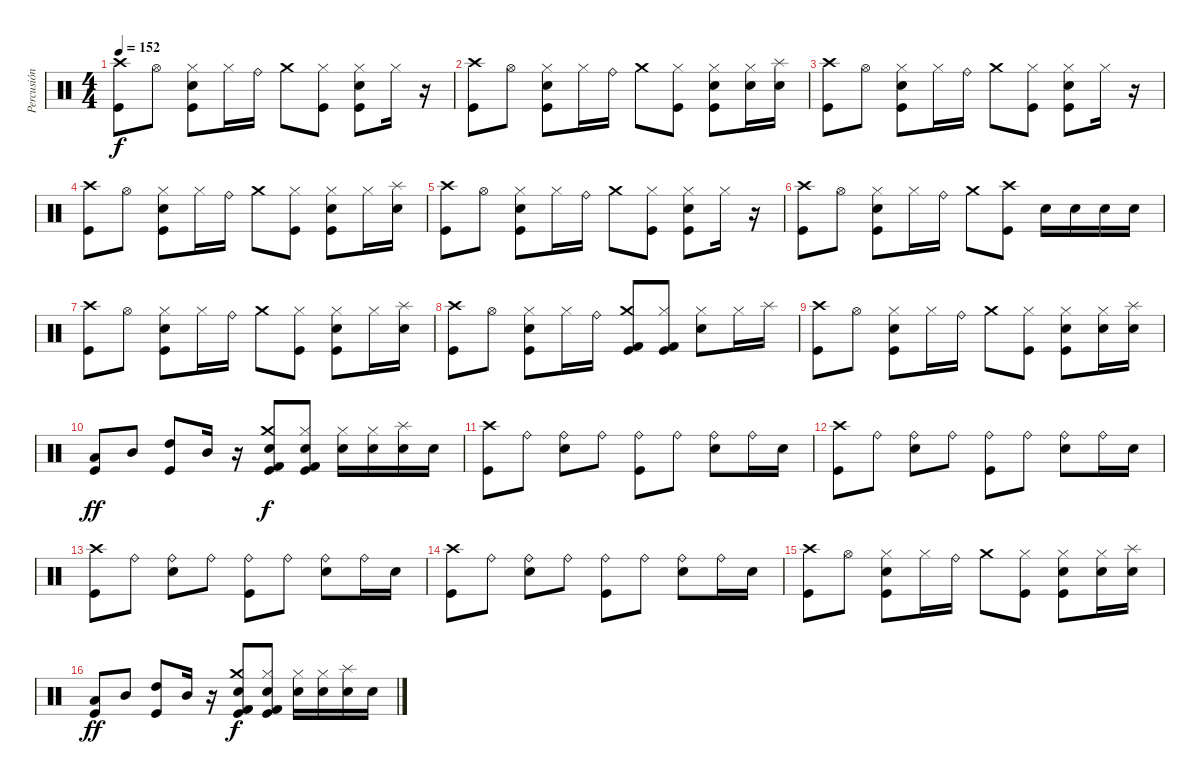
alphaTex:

\track ("Percusión" "Percusión") {instrument percussion}
\staff {score}
\articulation defaults
\ts (4 4)
\tempo 152
\clef neutral
\ks c
("Crash high (hit)" "Kick (hit)").8{dy f} "Hi-Hat (open)".8 ("Hi-Hat (closed)" "Electric Snare (hit)" "Kick (hit)").8 "Hi-Hat (closed)".16 "Ride (bell)".16 "Crash medium (hit)".8 ("Hi-Hat (closed)" "Kick (hit)").8 ("Hi-Hat (closed)" "Electric Snare (hit)" "Kick (hit)").8 "Hi-Hat (closed)".16 r.16 |
("Crash high (hit)" "Kick (hit)").8 "Hi-Hat (open)".8 ("Hi-Hat (closed)" "Electric Snare (hit)" "Kick (hit)").8 "Hi-Hat (closed)".16 "Ride (bell)".16 "Crash medium (hit)".8 ("Hi-Hat (closed)" "Kick (hit)").8 ("Hi-Hat (closed)" "Electric Snare (hit)" "Kick (hit)").8 ("Hi-Hat (closed)" "Electric Snare (hit)").16 ("Splash (hit)" "Electric Snare (hit)").16 |
("Crash high (hit)" "Kick (hit)").8 "Hi-Hat (open)".8 ("Hi-Hat (closed)" "Electric Snare (hit)" "Kick (hit)").8 "Hi-Hat (closed)".16 "Ride (bell)".16 "Crash medium (hit)".8 ("Hi-Hat (closed)" "Kick (hit)").8 ("Hi-Hat (closed)" "Electric Snare (hit)" "Kick (hit)").8 "Hi-Hat (closed)".16 r.16 |
("Crash high (hit)" "Kick (hit)").8 "Hi-Hat (open)".8 ("Hi-Hat (closed)" "Electric Snare (hit)" "Kick (hit)").8 "Hi-Hat (closed)".16 "Ride (bell)".16 "Crash medium (hit)".8 ("Hi-Hat (closed)" "Kick (hit)").8 ("Hi-Hat (closed)" "Electric Snare (hit)" "Kick (hit)").8 "Hi-Hat (closed)".16 ("Splash (hit)" "Electric Snare (hit)").16 |
("Crash high (hit)" "Kick (hit)").8 "Hi-Hat (open)".8 ("Hi-Hat (closed)" "Electric Snare (hit)" "Kick (hit)").8 "Hi-Hat (closed)".16 "Ride (bell)".16 "Crash medium (hit)".8 ("Hi-Hat (closed)" "Kick (hit)").8 ("Hi-Hat (closed)" "Electric Snare (hit)" "Kick (hit)").8 "Hi-Hat (closed)".16 r.16 |
("Crash high (hit)" "Kick (hit)").8 "Hi-Hat (open)".8 ("Hi-Hat (closed)" "Electric Snare (hit)" "Kick (hit)").8 "Hi-Hat (closed)".16 "Ride (bell)".16 "Crash medium (hit)".8 ("Crash high (hit)" "Kick (hit)").8 "Electric Snare (hit)".16 "Electric Snare (hit)".16 "Electric Snare (hit)".16 "Electric Snare (hit)".16 |
("Crash high (hit)" "Kick (hit)").8 "Hi-Hat (open)".8 ("Hi-Hat (closed)" "Electric Snare (hit)" "Kick (hit)").8 "Hi-Hat (closed)".16 "Ride (bell)".16 "Crash medium (hit)".8 ("Hi-Hat (closed)" "Kick (hit)").8 ("Hi-Hat (closed)" "Electric Snare (hit)" "Kick (hit)").8 "Hi-Hat (closed)".16 ("Splash (hit)" "Electric Snare (hit)").16 |
("Crash high (hit)" "Kick (hit)").8 "Hi-Hat (open)".8 ("Hi-Hat (closed)" "Electric Snare (hit)" "Kick (hit)").8 "Hi-Hat (closed)".16 "Ride (bell)".16 ("Crash medium (hit)" "Kick (hit) 2" "Kick (hit)").8 ("Hi-Hat (closed)" "Kick (hit) 2" "Kick (hit)").8 ("Hi-Hat (closed)" "Electric Snare (hit)").8 "Hi-Hat (closed)".16 "Splash (hit)".16 |
("Crash high (hit)" "Kick (hit)").8 "Hi-Hat (open)".8 ("Hi-Hat (closed)" "Electric Snare (hit)" "Kick (hit)").8 "Hi-Hat (closed)".16 "Ride (bell)".16 "Crash medium (hit)".8 ("Hi-Hat (closed)" "Kick (hit)").8 ("Hi-Hat (closed)" "Electric Snare (hit)" "Kick (hit)").8 ("Hi-Hat (closed)" "Electric Snare (hit)").16 ("Splash (hit)" "Electric Snare (hit)").16 |
("Low Tom (hit)" "Kick (hit)").8{dy ff} "Mid Tom (hit)".8 ("High Tom (hit)" "Kick (hit)").8 "Mid Tom (hit)".16 r.16 ("Crash medium (hit)" "Electric Snare (hit)" "Kick (hit) 2" "Kick (hit)").8{dy f} ("Hi-Hat (closed)" "Electric Snare (hit)" "Kick (hit) 2" "Kick (hit)").8 ("Hi-Hat (closed)" "Electric Snare (hit)").16 ("Hi-Hat (closed)" "Electric Snare (hit)").16 ("Splash (hit)" "Electric Snare (hit)").16 "Electric Snare (hit)".16 |
("Crash high (hit)" "Kick (hit)").8 "Ride (bell)".8 ("Ride (bell)" "Electric Snare (hit)").8 "Ride (bell)".8 ("Ride (bell)" "Kick (hit)").8 "Ride (bell)".8 ("Ride (bell)" "Electric Snare (hit)").8 "Ride (bell)".16 "Electric Snare (hit)".16 |
("Crash high (hit)" "Kick (hit)").8 "Ride (bell)".8 ("Ride (bell)" "Electric Snare (hit)").8 "Ride (bell)".8 ("Ride (bell)" "Kick (hit)").8 "Ride (bell)".8 ("Ride (bell)" "Electric Snare (hit)").8 "Ride (bell)".16 "Electric Snare (hit)".16 |
("Crash high (hit)" "Kick (hit)").8 "Ride (bell)".8 ("Ride (bell)" "Electric Snare (hit)").8 "Ride (bell)".8 ("Ride (bell)" "Kick (hit)").8 "Ride (bell)".8 ("Ride (bell)" "Electric Snare (hit)").8 "Ride (bell)".16 "Electric Snare (hit)".16 |
("Crash high (hit)" "Kick (hit)").8 "Ride (bell)".8 ("Ride (bell)" "Electric Snare (hit)").8 "Ride (bell)".8 ("Ride (bell)" "Kick (hit)").8 "Ride (bell)".8 ("Ride (bell)" "Electric Snare (hit)").8 "Ride (bell)".16 "Electric Snare (hit)".16 |
("Crash high (hit)" "Kick (hit)").8 "Hi-Hat (open)".8 ("Hi-Hat (closed)" "Electric Snare (hit)" "Kick (hit)").8 "Hi-Hat (closed)".16 "Ride (bell)".16 "Crash medium (hit)".8 ("Hi-Hat (closed)" "Kick (hit)").8 ("Hi-Hat (closed)" "Electric Snare (hit)" "Kick (hit)").8 ("Hi-Hat (closed)" "Electric Snare (hit)").16 ("Splash (hit)" "Electric Snare (hit)").16 |
("Low Tom (hit)" "Kick (hit)").8{dy ff} "Mid Tom (hit)".8 ("High Tom (hit)" "Kick (hit)").8 "Mid Tom (hit)".16 r.16 ("Crash medium (hit)" "Electric Snare (hit)" "Kick (hit) 2" "Kick (hit)").8{dy f} ("Hi-Hat (closed)" "Electric Snare (hit)" "Kick (hit) 2" "Kick (hit)").8 ("Hi-Hat (closed)" "Electric Snare (hit)").16 ("Hi-Hat (closed)" "Electric Snare (hit)").16 ("Splash (hit)" "Electric Snare (hit)").16 "Electric Snare (hit)".16
